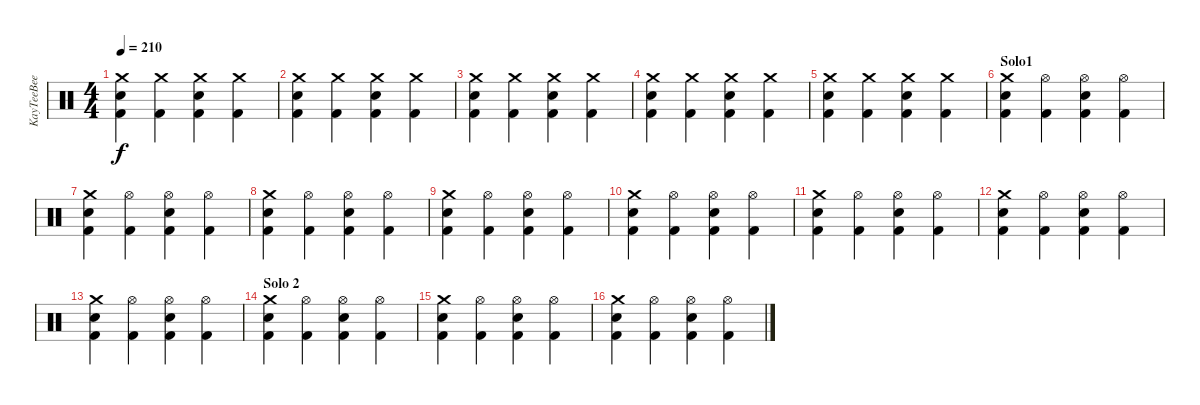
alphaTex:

\track ("KayTeeBee" "KayTeeBee") {instrument percussion}
\staff {score}
\articulation defaults
\ts (4 4)
\tempo 210
\clef neutral
\ks c
("Kick (hit) 2" "Electric Snare (hit)" "Crash medium (hit)").4{dy f} ("Kick (hit) 2" "Crash medium (hit)").4 ("Kick (hit) 2" "Electric Snare (hit)" "Crash medium (hit)").4 ("Kick (hit) 2" "Crash medium (hit)").4 |
("Kick (hit) 2" "Electric Snare (hit)" "Crash medium (hit)").4 ("Kick (hit) 2" "Crash medium (hit)").4 ("Kick (hit) 2" "Electric Snare (hit)" "Crash medium (hit)").4 ("Kick (hit) 2" "Crash medium (hit)").4 |
("Kick (hit) 2" "Electric Snare (hit)" "Crash medium (hit)").4 ("Kick (hit) 2" "Crash medium (hit)").4 ("Kick (hit) 2" "Electric Snare (hit)" "Crash medium (hit)").4 ("Kick (hit) 2" "Crash medium (hit)").4 |
("Kick (hit) 2" "Electric Snare (hit)" "Crash medium (hit)").4 ("Kick (hit) 2" "Crash medium (hit)").4 ("Kick (hit) 2" "Electric Snare (hit)" "Crash medium (hit)").4 ("Kick (hit) 2" "Crash medium (hit)").4 |
("Kick (hit) 2" "Electric Snare (hit)" "Crash medium (hit)").4 ("Kick (hit) 2" "Crash medium (hit)").4 ("Kick (hit) 2" "Electric Snare (hit)" "Crash medium (hit)").4 ("Kick (hit) 2" "Crash medium (hit)").4 |
\section ("" "Solo1")
("Crash medium (hit)" "Electric Snare (hit)" "Kick (hit) 2").4 ("Hi-Hat (open)" "Kick (hit) 2").4 ("Hi-Hat (open)" "Electric Snare (hit)" "Kick (hit) 2").4 ("Hi-Hat (open)" "Kick (hit) 2").4 |
("Crash medium (hit)" "Electric Snare (hit)" "Kick (hit) 2").4 ("Hi-Hat (open)" "Kick (hit) 2").4 ("Hi-Hat (open)" "Electric Snare (hit)" "Kick (hit) 2").4 ("Hi-Hat (open)" "Kick (hit) 2").4 |
("Crash medium (hit)" "Electric Snare (hit)" "Kick (hit) 2").4 ("Hi-Hat (open)" "Kick (hit) 2").4 ("Hi-Hat (open)" "Electric Snare (hit)" "Kick (hit) 2").4 ("Hi-Hat (open)" "Kick (hit) 2").4 |
("Crash medium (hit)" "Electric Snare (hit)" "Kick (hit) 2").4 ("Hi-Hat (open)" "Kick (hit) 2").4 ("Hi-Hat (open)" "Electric Snare (hit)" "Kick (hit) 2").4 ("Hi-Hat (open)" "Kick (hit) 2").4 |
("Crash medium (hit)" "Electric Snare (hit)" "Kick (hit) 2").4 ("Hi-Hat (open)" "Kick (hit) 2").4 ("Hi-Hat (open)" "Electric Snare (hit)" "Kick (hit) 2").4 ("Hi-Hat (open)" "Kick (hit) 2").4 |
("Crash medium (hit)" "Electric Snare (hit)" "Kick (hit) 2").4 ("Hi-Hat (open)" "Kick (hit) 2").4 ("Hi-Hat (open)" "Electric Snare (hit)" "Kick (hit) 2").4 ("Hi-Hat (open)" "Kick (hit) 2").4 |
("Crash medium (hit)" "Electric Snare (hit)" "Kick (hit) 2").4 ("Hi-Hat (open)" "Kick (hit) 2").4 ("Hi-Hat (open)" "Electric Snare (hit)" "Kick (hit) 2").4 ("Hi-Hat (open)" "Kick (hit) 2").4 |
("Crash medium (hit)" "Electric Snare (hit)" "Kick (hit) 2").4 ("Hi-Hat (open)" "Kick (hit) 2").4 ("Hi-Hat (open)" "Electric Snare (hit)" "Kick (hit) 2").4 ("Hi-Hat (open)" "Kick (hit) 2").4 |
\section ("" "Solo 2")
("Crash medium (hit)" "Electric Snare (hit)" "Kick (hit) 2").4 ("Hi-Hat (open)" "Kick (hit) 2").4 ("Hi-Hat (open)" "Electric Snare (hit)" "Kick (hit) 2").4 ("Hi-Hat (open)" "Kick (hit) 2").4 |
("Crash medium (hit)" "Electric Snare (hit)" "Kick (hit) 2").4 ("Hi-Hat (open)" "Kick (hit) 2").4 ("Hi-Hat (open)" "Electric Snare (hit)" "Kick (hit) 2").4 ("Hi-Hat (open)" "Kick (hit) 2").4 |
("Crash medium (hit)" "Electric Snare (hit)" "Kick (hit) 2").4 ("Hi-Hat (open)" "Kick (hit) 2").4 ("Hi-Hat (open)" "Electric Snare (hit)" "Kick (hit) 2").4 ("Hi-Hat (open)" "Kick (hit) 2").4
